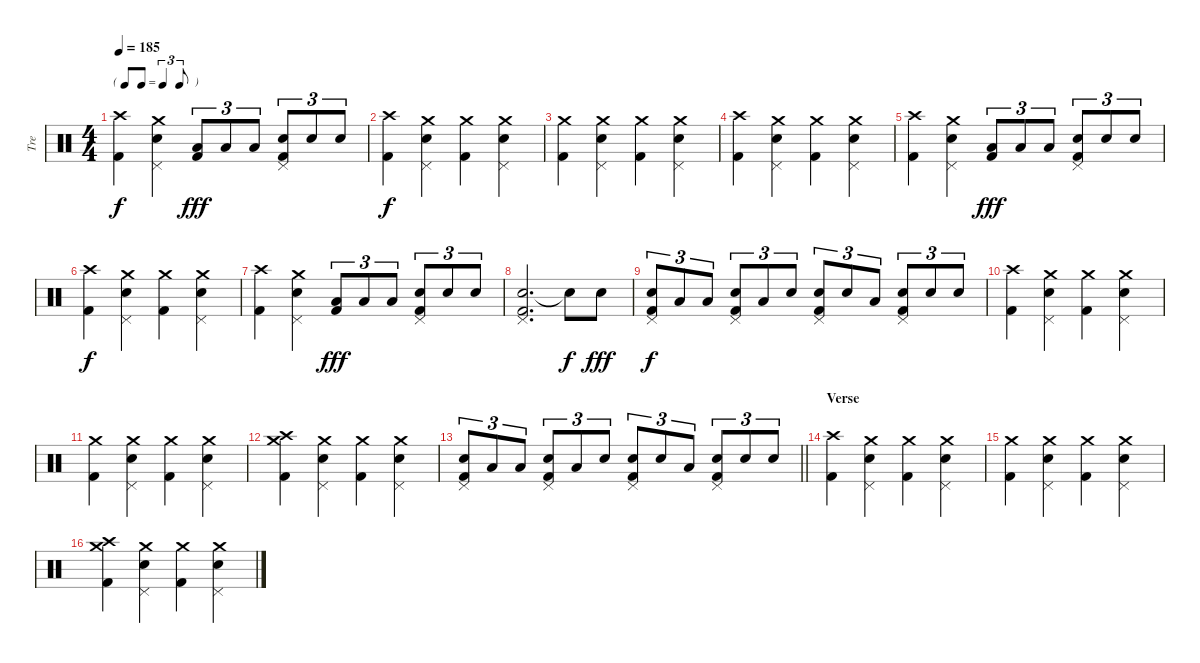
\track ("Tre" "Tre") {instrument percussion}
\staff {score}
\articulation defaults
\ts (4 4)
\tf triplet8th
\tempo 185
\clef neutral
\ks c
("Crash high (hit)" "Kick (hit) 2").4{dy f} ("Crash medium (hit)" "Snare (hit) 2" "Pedal Hi-Hat (hit)").4 ("Low Tom (hit)" "Kick (hit) 2").8{tu (3 2) dy fff} "Low Tom (hit)".8{tu (3 2)} "Low Tom (hit)".8{tu (3 2)} ("Snare (hit) 2" "Pedal Hi-Hat (hit)" "Kick (hit) 2").8{tu (3 2)} "Snare (hit) 2".8{tu (3 2)} "Snare (hit) 2".8{tu (3 2)} |
("Crash high (hit)" "Kick (hit) 2").4{dy f} ("Crash medium (hit)" "Snare (hit) 2" "Pedal Hi-Hat (hit)").4 ("Crash medium (hit)" "Kick (hit) 2").4 ("Crash medium (hit)" "Snare (hit) 2" "Pedal Hi-Hat (hit)").4 |
("Crash medium (hit)" "Kick (hit) 2").4 ("Crash medium (hit)" "Snare (hit) 2" "Pedal Hi-Hat (hit)").4 ("Crash medium (hit)" "Kick (hit) 2").4 ("Crash medium (hit)" "Snare (hit) 2" "Pedal Hi-Hat (hit)").4 |
("Crash high (hit)" "Kick (hit) 2").4 ("Crash medium (hit)" "Snare (hit) 2" "Pedal Hi-Hat (hit)").4 ("Crash medium (hit)" "Kick (hit) 2").4 ("Crash medium (hit)" "Snare (hit) 2" "Pedal Hi-Hat (hit)").4 |
("Crash high (hit)" "Kick (hit) 2").4 ("Crash medium (hit)" "Snare (hit) 2" "Pedal Hi-Hat (hit)").4 ("Low Tom (hit)" "Kick (hit) 2").8{tu (3 2) dy fff} "Low Tom (hit)".8{tu (3 2)} "Low Tom (hit)".8{tu (3 2)} ("Snare (hit) 2" "Pedal Hi-Hat (hit)" "Kick (hit) 2").8{tu (3 2)} "Snare (hit) 2".8{tu (3 2)} "Snare (hit) 2".8{tu (3 2)} |
("Crash high (hit)" "Kick (hit) 2").4{dy f} ("Crash medium (hit)" "Snare (hit) 2" "Pedal Hi-Hat (hit)").4 ("Crash medium (hit)" "Kick (hit) 2").4 ("Crash medium (hit)" "Snare (hit) 2" "Pedal Hi-Hat (hit)").4 |
("Crash high (hit)" "Kick (hit) 2").4 ("Crash medium (hit)" "Snare (hit) 2" "Pedal Hi-Hat (hit)").4 ("Low Tom (hit)" "Kick (hit) 2").8{tu (3 2) dy fff} "Low Tom (hit)".8{tu (3 2)} "Low Tom (hit)".8{tu (3 2)} ("Snare (hit) 2" "Pedal Hi-Hat (hit)" "Kick (hit) 2").8{tu (3 2)} "Snare (hit) 2".8{tu (3 2)} "Snare (hit) 2".8{tu (3 2)} |
("Snare (hit) 2" "Pedal Hi-Hat (hit)" "Kick (hit) 2").2{d} "Snare (hit)"{t}.8{dy f} "Snare (hit) 2".8{dy fff} |
("Snare (hit) 2" "Pedal Hi-Hat (hit)" "Kick (hit) 2").8{tu (3 2) dy f} "Low Tom (hit)".8{tu (3 2)} "Low Tom (hit)".8{tu (3 2)} ("Snare (hit) 2" "Pedal Hi-Hat (hit)" "Kick (hit) 2").8{tu (3 2)} "Low Tom (hit)".8{tu (3 2)} "Snare (hit) 2".8{tu (3 2)} ("Snare (hit) 2" "Pedal Hi-Hat (hit)" "Kick (hit) 2").8{tu (3 2)} "Snare (hit) 2".8{tu (3 2)} "Low Tom (hit)".8{tu (3 2)} ("Snare (hit) 2" "Pedal Hi-Hat (hit)" "Kick (hit) 2").8{tu (3 2)} "Snare (hit) 2".8{tu (3 2)} "Snare (hit) 2".8{tu (3 2)} |
("Crash high (hit)" "Kick (hit) 2").4 ("Crash medium (hit)" "Snare (hit) 2" "Pedal Hi-Hat (hit)").4 ("Crash medium (hit)" "Kick (hit) 2").4 ("Crash medium (hit)" "Snare (hit) 2" "Pedal Hi-Hat (hit)").4 |
("Crash medium (hit)" "Kick (hit) 2").4 ("Crash medium (hit)" "Snare (hit) 2" "Pedal Hi-Hat (hit)").4 ("Crash medium (hit)" "Kick (hit) 2").4 ("Crash medium (hit)" "Snare (hit) 2" "Pedal Hi-Hat (hit)").4 |
("Crash medium (hit)" "Crash high (hit)" "Kick (hit) 2").4 ("Crash medium (hit)" "Snare (hit) 2" "Pedal Hi-Hat (hit)").4 ("Crash medium (hit)" "Kick (hit) 2").4 ("Crash medium (hit)" "Snare (hit) 2" "Pedal Hi-Hat (hit)").4 |
\barLineRight lightlight
("Snare (hit) 2" "Pedal Hi-Hat (hit)" "Kick (hit) 2").8{tu (3 2)} "Low Tom (hit)".8{tu (3 2)} "Low Tom (hit)".8{tu (3 2)} ("Snare (hit) 2" "Pedal Hi-Hat (hit)" "Kick (hit) 2").8{tu (3 2)} "Low Tom (hit)".8{tu (3 2)} "Snare (hit) 2".8{tu (3 2)} ("Snare (hit) 2" "Pedal Hi-Hat (hit)" "Kick (hit) 2").8{tu (3 2)} "Snare (hit) 2".8{tu (3 2)} "Low Tom (hit)".8{tu (3 2)} ("Snare (hit) 2" "Pedal Hi-Hat (hit)" "Kick (hit) 2").8{tu (3 2)} "Snare (hit) 2".8{tu (3 2)} "Snare (hit) 2".8{tu (3 2)} |
\section ("" "Verse")
("Crash high (hit)" "Kick (hit) 2").4 ("Crash medium (hit)" "Snare (hit) 2" "Pedal Hi-Hat (hit)").4 ("Crash medium (hit)" "Kick (hit) 2").4 ("Crash medium (hit)" "Snare (hit) 2" "Pedal Hi-Hat (hit)").4 |
("Crash medium (hit)" "Kick (hit) 2").4 ("Crash medium (hit)" "Snare (hit) 2" "Pedal Hi-Hat (hit)").4 ("Crash medium (hit)" "Kick (hit) 2").4 ("Crash medium (hit)" "Snare (hit) 2" "Pedal Hi-Hat (hit)").4 |
("Crash medium (hit)" "Crash high (hit)" "Kick (hit) 2").4 ("Crash medium (hit)" "Snare (hit) 2" "Pedal Hi-Hat (hit)").4 ("Crash medium (hit)" "Kick (hit) 2").4 ("Crash medium (hit)" "Snare (hit) 2" "Pedal Hi-Hat (hit)").4
